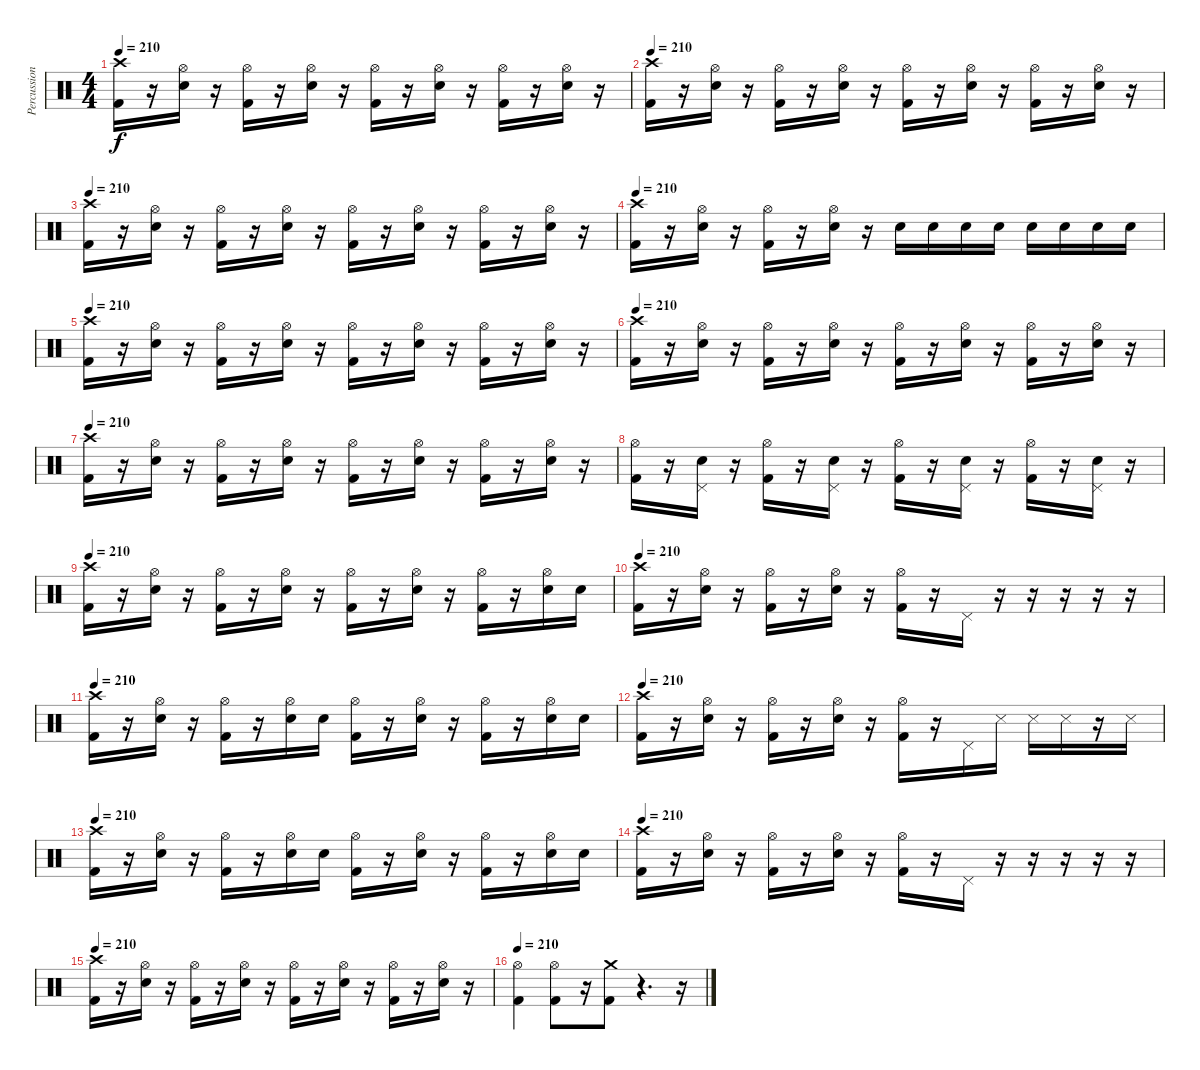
\track ("Percussioni" "Percussion") {instrument percussion}
\staff {score}
\articulation defaults
\ts (4 4)
\tempo 210
\clef neutral
\ks c
("Kick (hit) 2" "Crash high (hit)").16{dy f} r.16 ("Snare (hit) 2" "Hi-Hat (open)").16 r.16 ("Kick (hit) 2" "Hi-Hat (open)").16 r.16 ("Snare (hit) 2" "Hi-Hat (open)").16 r.16 ("Kick (hit) 2" "Hi-Hat (open)").16 r.16 ("Snare (hit) 2" "Hi-Hat (open)").16 r.16 ("Kick (hit) 2" "Hi-Hat (open)").16 r.16 ("Snare (hit) 2" "Hi-Hat (open)").16 r.16 |
\tempo 210
("Kick (hit) 2" "Crash high (hit)").16 r.16 ("Snare (hit) 2" "Hi-Hat (open)").16 r.16 ("Kick (hit) 2" "Hi-Hat (open)").16 r.16 ("Snare (hit) 2" "Hi-Hat (open)").16 r.16 ("Kick (hit) 2" "Hi-Hat (open)").16 r.16 ("Snare (hit) 2" "Hi-Hat (open)").16 r.16 ("Kick (hit) 2" "Hi-Hat (open)").16 r.16 ("Snare (hit) 2" "Hi-Hat (open)").16 r.16 |
\tempo 210
("Kick (hit) 2" "Crash high (hit)").16 r.16 ("Snare (hit) 2" "Hi-Hat (open)").16 r.16 ("Kick (hit) 2" "Hi-Hat (open)").16 r.16 ("Snare (hit) 2" "Hi-Hat (open)").16 r.16 ("Kick (hit) 2" "Hi-Hat (open)").16 r.16 ("Snare (hit) 2" "Hi-Hat (open)").16 r.16 ("Kick (hit) 2" "Hi-Hat (open)").16 r.16 ("Snare (hit) 2" "Hi-Hat (open)").16 r.16 |
\tempo 210
("Kick (hit) 2" "Crash high (hit)").16 r.16 ("Snare (hit) 2" "Hi-Hat (open)").16 r.16 ("Kick (hit) 2" "Hi-Hat (open)").16 r.16 ("Snare (hit) 2" "Hi-Hat (open)").16 r.16 "Snare (hit) 2".16 "Snare (hit) 2".16 "Snare (hit) 2".16 "Snare (hit) 2".16 "Snare (hit) 2".16 "Snare (hit) 2".16 "Snare (hit) 2".16 "Snare (hit) 2".16 |
\tempo 210
("Kick (hit) 2" "Crash high (hit)").16 r.16 ("Snare (hit) 2" "Hi-Hat (open)").16 r.16 ("Kick (hit) 2" "Hi-Hat (open)").16 r.16 ("Snare (hit) 2" "Hi-Hat (open)").16 r.16 ("Kick (hit) 2" "Hi-Hat (open)").16 r.16 ("Snare (hit) 2" "Hi-Hat (open)").16 r.16 ("Kick (hit) 2" "Hi-Hat (open)").16 r.16 ("Snare (hit) 2" "Hi-Hat (open)").16 r.16 |
\tempo 210
("Kick (hit) 2" "Crash high (hit)").16 r.16 ("Snare (hit) 2" "Hi-Hat (open)").16 r.16 ("Kick (hit) 2" "Hi-Hat (open)").16 r.16 ("Snare (hit) 2" "Hi-Hat (open)").16 r.16 ("Kick (hit) 2" "Hi-Hat (open)").16 r.16 ("Snare (hit) 2" "Hi-Hat (open)").16 r.16 ("Kick (hit) 2" "Hi-Hat (open)").16 r.16 ("Snare (hit) 2" "Hi-Hat (open)").16 r.16 |
\tempo 210
("Kick (hit) 2" "Crash high (hit)").16 r.16 ("Snare (hit) 2" "Hi-Hat (open)").16 r.16 ("Kick (hit) 2" "Hi-Hat (open)").16 r.16 ("Snare (hit) 2" "Hi-Hat (open)").16 r.16 ("Kick (hit) 2" "Hi-Hat (open)").16 r.16 ("Snare (hit) 2" "Hi-Hat (open)").16 r.16 ("Kick (hit) 2" "Hi-Hat (open)").16 r.16 ("Snare (hit) 2" "Hi-Hat (open)").16 r.16 |
("Kick (hit) 2" "Hi-Hat (open)").16 r.16 ("Pedal Hi-Hat (hit)" "Snare (hit) 2").16 r.16 ("Kick (hit) 2" "Hi-Hat (open)").16 r.16 ("Pedal Hi-Hat (hit)" "Snare (hit) 2").16 r.16 ("Kick (hit) 2" "Hi-Hat (open)").16 r.16 ("Pedal Hi-Hat (hit)" "Snare (hit) 2").16 r.16 ("Kick (hit) 2" "Hi-Hat (open)").16 r.16 ("Pedal Hi-Hat (hit)" "Snare (hit) 2").16 r.16 |
\tempo 210
("Kick (hit) 2" "Crash high (hit)").16 r.16 ("Snare (hit) 2" "Hi-Hat (open)").16 r.16 ("Kick (hit) 2" "Hi-Hat (open)").16 r.16 ("Snare (hit) 2" "Hi-Hat (open)").16 r.16 ("Kick (hit) 2" "Hi-Hat (open)").16 r.16 ("Snare (hit) 2" "Hi-Hat (open)").16 r.16 ("Kick (hit) 2" "Hi-Hat (open)").16 r.16 ("Snare (hit) 2" "Hi-Hat (open)").16 "Snare (hit) 2".16 |
\tempo 210
("Kick (hit) 2" "Crash high (hit)").16 r.16 ("Snare (hit) 2" "Hi-Hat (open)").16 r.16 ("Kick (hit) 2" "Hi-Hat (open)").16 r.16 ("Snare (hit) 2" "Hi-Hat (open)").16 r.16 ("Kick (hit) 2" "Hi-Hat (open)").16 r.16 "Pedal Hi-Hat (hit)".16 r.16 r.16 r.16 r.16 r.16 |
\tempo 210
("Kick (hit) 2" "Crash high (hit)").16 r.16 ("Snare (hit) 2" "Hi-Hat (open)").16 r.16 ("Kick (hit) 2" "Hi-Hat (open)").16 r.16 ("Snare (hit) 2" "Hi-Hat (open)").16 "Snare (hit) 2".16 ("Kick (hit) 2" "Hi-Hat (open)").16 r.16 ("Snare (hit) 2" "Hi-Hat (open)").16 r.16 ("Kick (hit) 2" "Hi-Hat (open)").16 r.16 ("Snare (hit) 2" "Hi-Hat (open)").16 "Snare (hit) 2".16 |
\tempo 210
("Kick (hit) 2" "Crash high (hit)").16 r.16 ("Snare (hit) 2" "Hi-Hat (open)").16 r.16 ("Kick (hit) 2" "Hi-Hat (open)").16 r.16 ("Snare (hit) 2" "Hi-Hat (open)").16 r.16 ("Kick (hit) 2" "Hi-Hat (open)").16 r.16 "Pedal Hi-Hat (hit)".16 "Snare (side stick) 3".16 "Snare (side stick) 3".16 "Snare (side stick) 3".16 r.16 "Snare (side stick) 3".16 |
\tempo 210
("Kick (hit) 2" "Crash high (hit)").16 r.16 ("Snare (hit) 2" "Hi-Hat (open)").16 r.16 ("Kick (hit) 2" "Hi-Hat (open)").16 r.16 ("Snare (hit) 2" "Hi-Hat (open)").16 "Snare (hit) 2".16 ("Kick (hit) 2" "Hi-Hat (open)").16 r.16 ("Snare (hit) 2" "Hi-Hat (open)").16 r.16 ("Kick (hit) 2" "Hi-Hat (open)").16 r.16 ("Snare (hit) 2" "Hi-Hat (open)").16 "Snare (hit) 2".16 |
\tempo 210
("Kick (hit) 2" "Crash high (hit)").16 r.16 ("Snare (hit) 2" "Hi-Hat (open)").16 r.16 ("Kick (hit) 2" "Hi-Hat (open)").16 r.16 ("Snare (hit) 2" "Hi-Hat (open)").16 r.16 ("Kick (hit) 2" "Hi-Hat (open)").16 r.16 "Pedal Hi-Hat (hit)".16 r.16 r.16 r.16 r.16 r.16 |
\tempo 210
("Kick (hit) 2" "Crash high (hit)").16 r.16 ("Snare (hit) 2" "Hi-Hat (open)").16 r.16 ("Kick (hit) 2" "Hi-Hat (open)").16 r.16 ("Snare (hit) 2" "Hi-Hat (open)").16 r.16 ("Kick (hit) 2" "Hi-Hat (open)").16 r.16 ("Snare (hit) 2" "Hi-Hat (open)").16 r.16 ("Kick (hit) 2" "Hi-Hat (open)").16 r.16 ("Snare (hit) 2" "Hi-Hat (open)").16 r.16 |
\tempo 210
("Kick (hit) 2" "Hi-Hat (open)").4 ("Kick (hit) 2" "Hi-Hat (open)").8 r.16 ("Kick (hit) 2" "Crash medium (hit)").8 r.4{d} r.16
